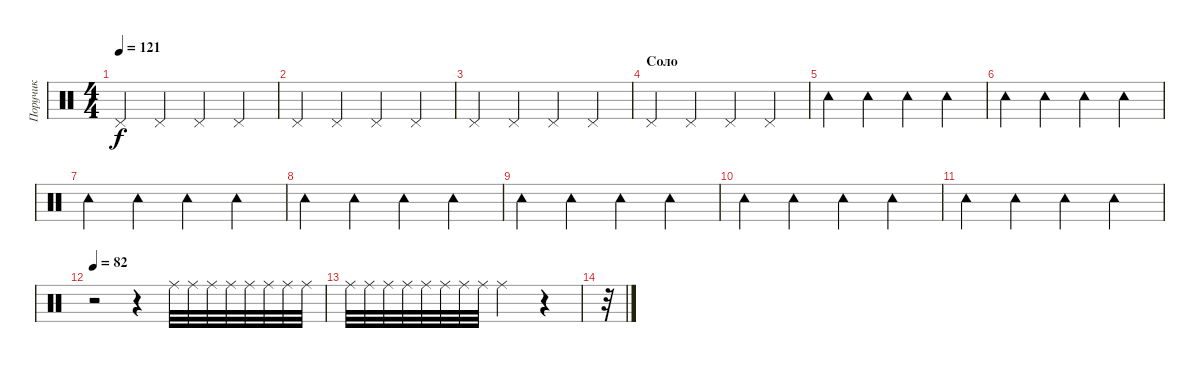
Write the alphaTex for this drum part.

\track ("Поручик" "Поручик") {instrument percussion}
\staff {score}
\articulation defaults
\ts (4 4)
\tempo 121
\clef neutral
\ks c "Pedal Hi-Hat (hit)".4{dy f} "Pedal Hi-Hat (hit)".4 "Pedal Hi-Hat (hit)".4 "Pedal Hi-Hat (hit)".4
|
"Pedal Hi-Hat (hit)".4 "Pedal Hi-Hat (hit)".4 "Pedal Hi-Hat (hit)".4 "Pedal Hi-Hat (hit)".4 |
"Pedal Hi-Hat (hit)".4 "Pedal Hi-Hat (hit)".4 "Pedal Hi-Hat (hit)".4 "Pedal Hi-Hat (hit)".4 |
\section ("" "Соло")
"Pedal Hi-Hat (hit)".4 "Pedal Hi-Hat (hit)".4 "Pedal Hi-Hat (hit)".4 "Pedal Hi-Hat (hit)".4 |
"Tambourine (hit)".4{volume 8} "Tambourine (hit)".4 "Tambourine (hit)".4 "Tambourine (hit)".4 |
"Tambourine (hit)".4{volume 8} "Tambourine (hit)".4 "Tambourine (hit)".4 "Tambourine (hit)".4 |
"Tambourine (hit)".4{volume 8} "Tambourine (hit)".4 "Tambourine (hit)".4 "Tambourine (hit)".4 |
"Tambourine (hit)".4{volume 8} "Tambourine (hit)".4 "Tambourine (hit)".4 "Tambourine (hit)".4 |
"Tambourine (hit)".4{volume 8} "Tambourine (hit)".4 "Tambourine (hit)".4 "Tambourine (hit)".4 |
"Tambourine (hit)".4{volume 8} "Tambourine (hit)".4 "Tambourine (hit)".4 "Tambourine (hit)".4 |
"Tambourine (hit)".4{volume 8} "Tambourine (hit)".4 "Tambourine (hit)".4 "Tambourine (hit)".4 |
\tempo 82
r.2 r.4{volume 5} "Ride (middle)".32{volume 12} "Ride (middle)".32 "Ride (middle)".32 "Ride (middle)".32 "Ride (middle)".32 "Ride (middle)".32 "Ride (middle)".32 "Ride (middle)".32 |
"Ride (middle)".32{volume 5} "Ride (middle)".32 "Ride (middle)".32 "Ride (middle)".32 "Ride (middle)".32 "Ride (middle)".32 "Ride (middle)".32 "Ride (middle)".32 "Ride (middle)".2 r.4 |
r.32
